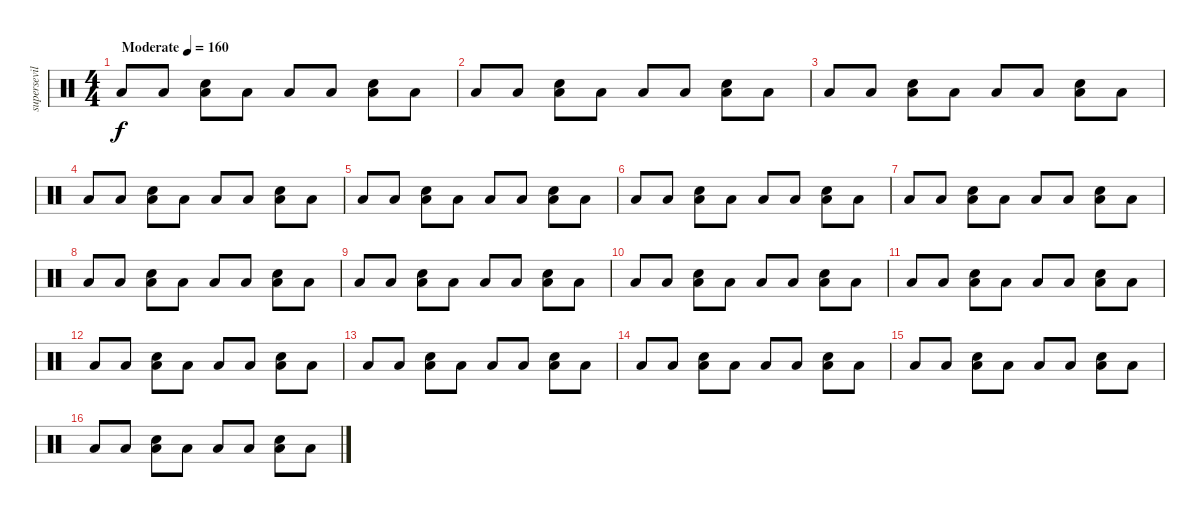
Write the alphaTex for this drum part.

\track ("supersevilla" "supersevil") {instrument percussion}
\staff {score}
\articulation defaults
\ts (4 4)
\tempo (160 "Moderate")
\clef neutral
\ks c "Low Floor Tom (hit)".8{dy f} "Low Floor Tom (hit)".8
("Low Floor Tom (hit)" "Electric Snare (hit)").8 "Low Floor Tom (hit)".8 "Low Floor Tom (hit)".8 "Low Floor Tom (hit)".8 ("Low Floor Tom (hit)" "Electric Snare (hit)").8 "Low Floor Tom (hit)".8 |
"Low Floor Tom (hit)".8 "Low Floor Tom (hit)".8 ("Low Floor Tom (hit)" "Electric Snare (hit)").8 "Low Floor Tom (hit)".8 "Low Floor Tom (hit)".8 "Low Floor Tom (hit)".8 ("Low Floor Tom (hit)" "Electric Snare (hit)").8 "Low Floor Tom (hit)".8 |
"Low Floor Tom (hit)".8 "Low Floor Tom (hit)".8 ("Low Floor Tom (hit)" "Electric Snare (hit)").8 "Low Floor Tom (hit)".8 "Low Floor Tom (hit)".8 "Low Floor Tom (hit)".8 ("Low Floor Tom (hit)" "Electric Snare (hit)").8 "Low Floor Tom (hit)".8 |
"Low Floor Tom (hit)".8 "Low Floor Tom (hit)".8 ("Low Floor Tom (hit)" "Electric Snare (hit)").8 "Low Floor Tom (hit)".8 "Low Floor Tom (hit)".8 "Low Floor Tom (hit)".8 ("Low Floor Tom (hit)" "Electric Snare (hit)").8 "Low Floor Tom (hit)".8 |
"Low Floor Tom (hit)".8 "Low Floor Tom (hit)".8 ("Low Floor Tom (hit)" "Electric Snare (hit)").8 "Low Floor Tom (hit)".8 "Low Floor Tom (hit)".8 "Low Floor Tom (hit)".8 ("Low Floor Tom (hit)" "Electric Snare (hit)").8 "Low Floor Tom (hit)".8 |
"Low Floor Tom (hit)".8 "Low Floor Tom (hit)".8 ("Low Floor Tom (hit)" "Electric Snare (hit)").8 "Low Floor Tom (hit)".8 "Low Floor Tom (hit)".8 "Low Floor Tom (hit)".8 ("Low Floor Tom (hit)" "Electric Snare (hit)").8 "Low Floor Tom (hit)".8 |
"Low Floor Tom (hit)".8 "Low Floor Tom (hit)".8 ("Low Floor Tom (hit)" "Electric Snare (hit)").8 "Low Floor Tom (hit)".8 "Low Floor Tom (hit)".8 "Low Floor Tom (hit)".8 ("Low Floor Tom (hit)" "Electric Snare (hit)").8 "Low Floor Tom (hit)".8 |
"Low Floor Tom (hit)".8 "Low Floor Tom (hit)".8 ("Low Floor Tom (hit)" "Electric Snare (hit)").8 "Low Floor Tom (hit)".8 "Low Floor Tom (hit)".8 "Low Floor Tom (hit)".8 ("Low Floor Tom (hit)" "Electric Snare (hit)").8 "Low Floor Tom (hit)".8 |
"Low Floor Tom (hit)".8 "Low Floor Tom (hit)".8 ("Low Floor Tom (hit)" "Electric Snare (hit)").8 "Low Floor Tom (hit)".8 "Low Floor Tom (hit)".8 "Low Floor Tom (hit)".8 ("Low Floor Tom (hit)" "Electric Snare (hit)").8 "Low Floor Tom (hit)".8 |
"Low Floor Tom (hit)".8 "Low Floor Tom (hit)".8 ("Low Floor Tom (hit)" "Electric Snare (hit)").8 "Low Floor Tom (hit)".8 "Low Floor Tom (hit)".8 "Low Floor Tom (hit)".8 ("Low Floor Tom (hit)" "Electric Snare (hit)").8 "Low Floor Tom (hit)".8 |
"Low Floor Tom (hit)".8 "Low Floor Tom (hit)".8 ("Low Floor Tom (hit)" "Electric Snare (hit)").8 "Low Floor Tom (hit)".8 "Low Floor Tom (hit)".8 "Low Floor Tom (hit)".8 ("Low Floor Tom (hit)" "Electric Snare (hit)").8 "Low Floor Tom (hit)".8 |
"Low Floor Tom (hit)".8 "Low Floor Tom (hit)".8 ("Low Floor Tom (hit)" "Electric Snare (hit)").8 "Low Floor Tom (hit)".8 "Low Floor Tom (hit)".8 "Low Floor Tom (hit)".8 ("Low Floor Tom (hit)" "Electric Snare (hit)").8 "Low Floor Tom (hit)".8 |
"Low Floor Tom (hit)".8 "Low Floor Tom (hit)".8 ("Low Floor Tom (hit)" "Electric Snare (hit)").8 "Low Floor Tom (hit)".8 "Low Floor Tom (hit)".8 "Low Floor Tom (hit)".8 ("Low Floor Tom (hit)" "Electric Snare (hit)").8 "Low Floor Tom (hit)".8 |
"Low Floor Tom (hit)".8 "Low Floor Tom (hit)".8 ("Low Floor Tom (hit)" "Electric Snare (hit)").8 "Low Floor Tom (hit)".8 "Low Floor Tom (hit)".8 "Low Floor Tom (hit)".8 ("Low Floor Tom (hit)" "Electric Snare (hit)").8 "Low Floor Tom (hit)".8 |
"Low Floor Tom (hit)".8 "Low Floor Tom (hit)".8 ("Low Floor Tom (hit)" "Electric Snare (hit)").8 "Low Floor Tom (hit)".8 "Low Floor Tom (hit)".8 "Low Floor Tom (hit)".8 ("Low Floor Tom (hit)" "Electric Snare (hit)").8 "Low Floor Tom (hit)".8 |
"Low Floor Tom (hit)".8 "Low Floor Tom (hit)".8 ("Low Floor Tom (hit)" "Electric Snare (hit)").8 "Low Floor Tom (hit)".8 "Low Floor Tom (hit)".8 "Low Floor Tom (hit)".8 ("Low Floor Tom (hit)" "Electric Snare (hit)").8 "Low Floor Tom (hit)".8
